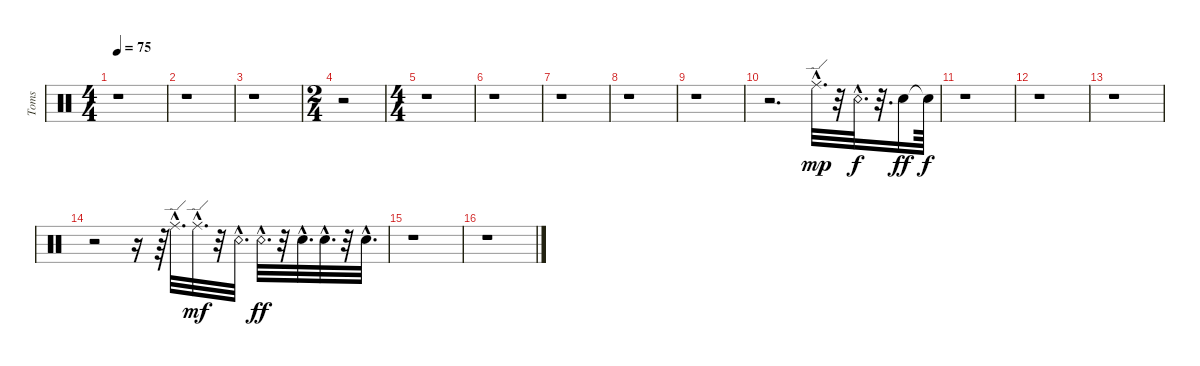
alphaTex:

\track ("Toms" "Toms") {instrument percussion}
\staff {score}
\articulation defaults
\ts (4 4)
\tempo 75
\clef neutral
\ks c
r.1{dy mp} |
r.1 |
r.1 |
\ts (2 4)
r.2 |
\ts (4 4)
r.1 |
r.1 |
r.1 |
r.1 |
r.1 |
r.2{d} "Ride (edge)"{hac}.32{d} r.32 "Snare (rim shot)"{hac}.32{d dy f} r.32{d} "Snare (hit)".16{dy ff} "Snare (hit)"{t}.64{dy f} |
r.1 |
r.1 |
r.1 |
r.2 r.16 r.64 "Ride (edge)"{hac}.32{d} "Ride (edge)"{hac}.32{d dy mf} r.32 "Snare (rim shot)"{hac}.32{d} "Snare (rim shot)"{hac}.32{d dy ff} r.32 "Snare (hit)"{hac}.32{d} "Snare (hit)"{hac}.32{d} r.32 "Snare (hit)"{hac}.32{d} |
r.1 |
r.1
